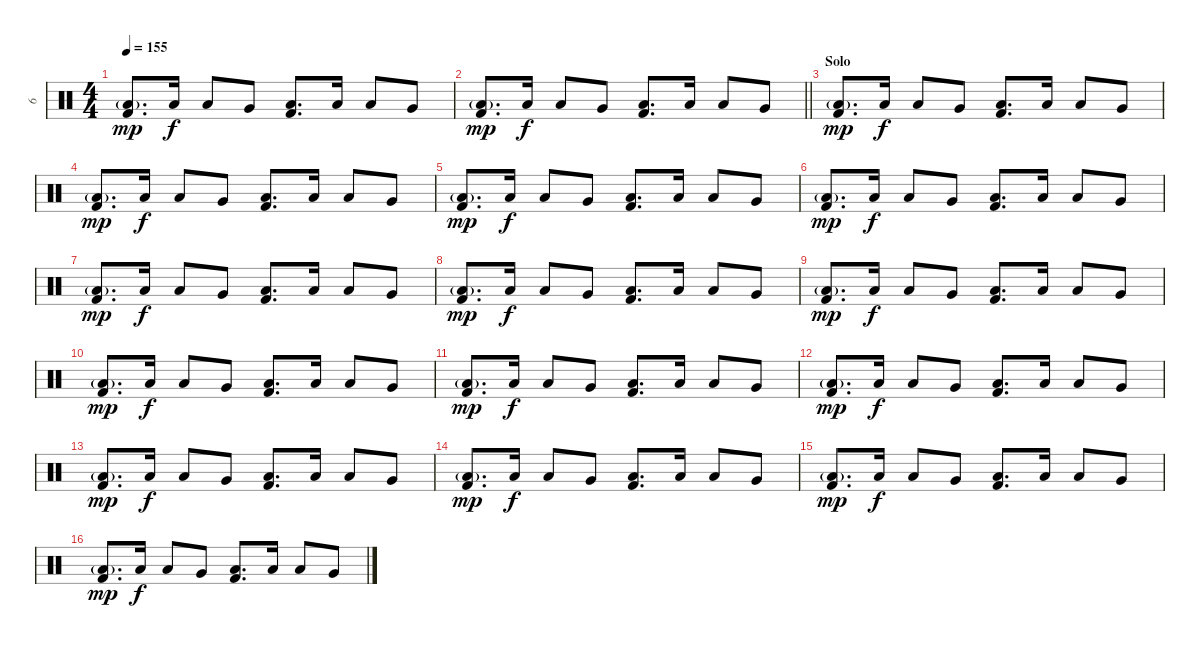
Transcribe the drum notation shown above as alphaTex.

\track ("6" "6") {instrument percussion}
\staff {score}
\articulation defaults
\ts (4 4)
\tempo 155
\clef neutral
\ks c
("Low Tom (hit)"{g} "Kick (hit) 2").8{d dy mp} "Low Tom (hit)".16{dy f} "Low Tom (hit)".8 "Very Low Tom (hit)".8 ("Low Tom (hit)" "Kick (hit) 2").8{d} "Low Tom (hit)".16 "Low Tom (hit)".8 "Very Low Tom (hit)".8 |
\barLineRight lightlight
("Low Tom (hit)"{g} "Kick (hit) 2").8{d dy mp} "Low Tom (hit)".16{dy f} "Low Tom (hit)".8 "Very Low Tom (hit)".8 ("Low Tom (hit)" "Kick (hit) 2").8{d} "Low Tom (hit)".16 "Low Tom (hit)".8 "Very Low Tom (hit)".8 |
\section ("" "Solo")
("Low Tom (hit)"{g} "Kick (hit) 2").8{d dy mp} "Low Tom (hit)".16{dy f} "Low Tom (hit)".8 "Very Low Tom (hit)".8 ("Low Tom (hit)" "Kick (hit) 2").8{d} "Low Tom (hit)".16 "Low Tom (hit)".8 "Very Low Tom (hit)".8 |
("Low Tom (hit)"{g} "Kick (hit) 2").8{d dy mp} "Low Tom (hit)".16{dy f} "Low Tom (hit)".8 "Very Low Tom (hit)".8 ("Low Tom (hit)" "Kick (hit) 2").8{d} "Low Tom (hit)".16 "Low Tom (hit)".8 "Very Low Tom (hit)".8 |
("Low Tom (hit)"{g} "Kick (hit) 2").8{d dy mp} "Low Tom (hit)".16{dy f} "Low Tom (hit)".8 "Very Low Tom (hit)".8 ("Low Tom (hit)" "Kick (hit) 2").8{d} "Low Tom (hit)".16 "Low Tom (hit)".8 "Very Low Tom (hit)".8 |
("Low Tom (hit)"{g} "Kick (hit) 2").8{d dy mp} "Low Tom (hit)".16{dy f} "Low Tom (hit)".8 "Very Low Tom (hit)".8 ("Low Tom (hit)" "Kick (hit) 2").8{d} "Low Tom (hit)".16 "Low Tom (hit)".8 "Very Low Tom (hit)".8 |
("Low Tom (hit)"{g} "Kick (hit) 2").8{d dy mp} "Low Tom (hit)".16{dy f} "Low Tom (hit)".8 "Very Low Tom (hit)".8 ("Low Tom (hit)" "Kick (hit) 2").8{d} "Low Tom (hit)".16 "Low Tom (hit)".8 "Very Low Tom (hit)".8 |
("Low Tom (hit)"{g} "Kick (hit) 2").8{d dy mp} "Low Tom (hit)".16{dy f} "Low Tom (hit)".8 "Very Low Tom (hit)".8 ("Low Tom (hit)" "Kick (hit) 2").8{d} "Low Tom (hit)".16 "Low Tom (hit)".8 "Very Low Tom (hit)".8 |
("Low Tom (hit)"{g} "Kick (hit) 2").8{d dy mp} "Low Tom (hit)".16{dy f} "Low Tom (hit)".8 "Very Low Tom (hit)".8 ("Low Tom (hit)" "Kick (hit) 2").8{d} "Low Tom (hit)".16 "Low Tom (hit)".8 "Very Low Tom (hit)".8 |
("Low Tom (hit)"{g} "Kick (hit) 2").8{d dy mp} "Low Tom (hit)".16{dy f} "Low Tom (hit)".8 "Very Low Tom (hit)".8 ("Low Tom (hit)" "Kick (hit) 2").8{d} "Low Tom (hit)".16 "Low Tom (hit)".8 "Very Low Tom (hit)".8 |
("Low Tom (hit)"{g} "Kick (hit) 2").8{d dy mp} "Low Tom (hit)".16{dy f} "Low Tom (hit)".8 "Very Low Tom (hit)".8 ("Low Tom (hit)" "Kick (hit) 2").8{d} "Low Tom (hit)".16 "Low Tom (hit)".8 "Very Low Tom (hit)".8 |
("Low Tom (hit)"{g} "Kick (hit) 2").8{d dy mp} "Low Tom (hit)".16{dy f} "Low Tom (hit)".8 "Very Low Tom (hit)".8 ("Low Tom (hit)" "Kick (hit) 2").8{d} "Low Tom (hit)".16 "Low Tom (hit)".8 "Very Low Tom (hit)".8 |
("Low Tom (hit)"{g} "Kick (hit) 2").8{d dy mp} "Low Tom (hit)".16{dy f} "Low Tom (hit)".8 "Very Low Tom (hit)".8 ("Low Tom (hit)" "Kick (hit) 2").8{d} "Low Tom (hit)".16 "Low Tom (hit)".8 "Very Low Tom (hit)".8 |
("Low Tom (hit)"{g} "Kick (hit) 2").8{d dy mp} "Low Tom (hit)".16{dy f} "Low Tom (hit)".8 "Very Low Tom (hit)".8 ("Low Tom (hit)" "Kick (hit) 2").8{d} "Low Tom (hit)".16 "Low Tom (hit)".8 "Very Low Tom (hit)".8 |
("Low Tom (hit)"{g} "Kick (hit) 2").8{d dy mp} "Low Tom (hit)".16{dy f} "Low Tom (hit)".8 "Very Low Tom (hit)".8 ("Low Tom (hit)" "Kick (hit) 2").8{d} "Low Tom (hit)".16 "Low Tom (hit)".8 "Very Low Tom (hit)".8 |
("Low Tom (hit)"{g} "Kick (hit) 2").8{d dy mp} "Low Tom (hit)".16{dy f} "Low Tom (hit)".8 "Very Low Tom (hit)".8 ("Low Tom (hit)" "Kick (hit) 2").8{d} "Low Tom (hit)".16 "Low Tom (hit)".8 "Very Low Tom (hit)".8
